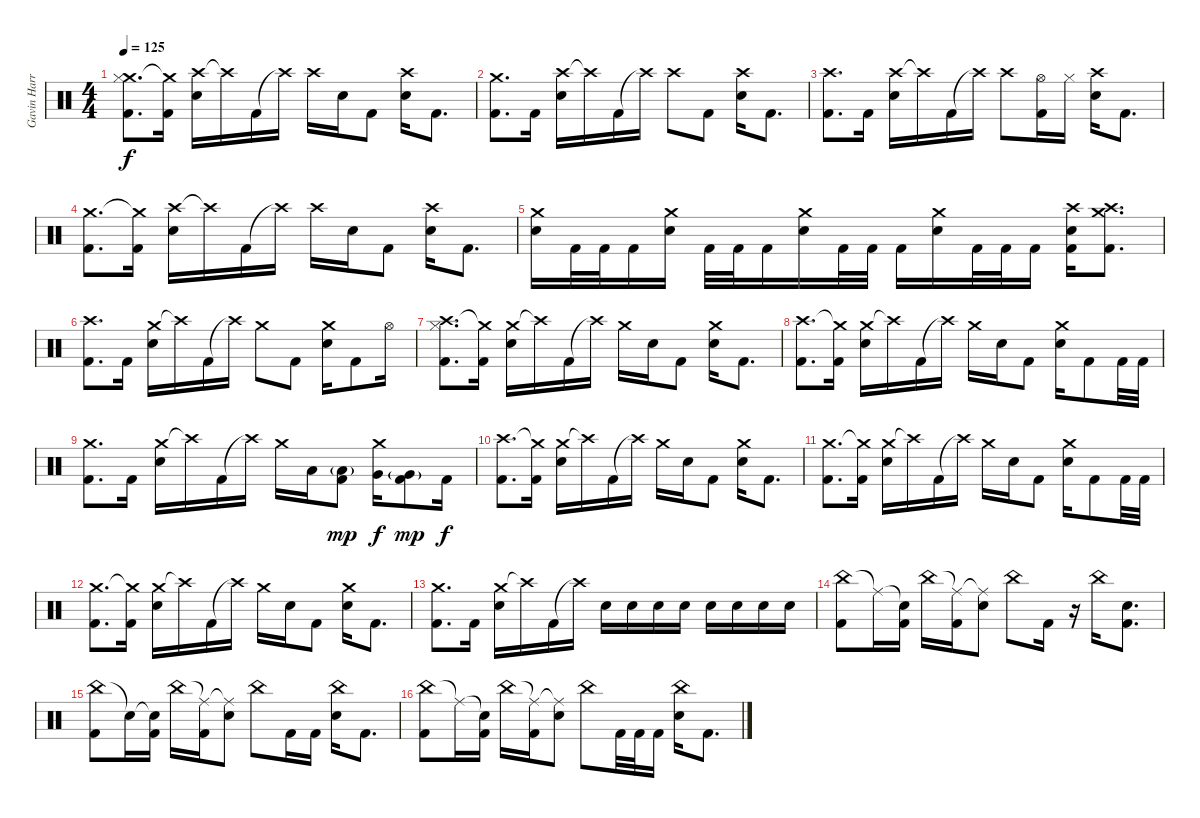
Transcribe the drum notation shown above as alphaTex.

\track ("Gavin Harrison" "Gavin Harr") {instrument percussion}
\staff {score}
\articulation defaults
\ts (4 4)
\tempo 125
\clef neutral
\ks c
("Crash medium (hit)" "Hi-Hat (closed)" "Kick (hit) 2").8{d dy f} ("Crash medium (hit)"{t} "Kick (hit) 2").16 ("Crash high (hit)" "Electric Snare (hit)").16 "Crash high (hit)"{t}.16 "Kick (hit) 2".16 "Crash high (hit)"{t}.16 "Crash high (hit)".16 "Electric Snare (hit)".16 "Kick (hit) 2".8 ("Crash high (hit)" "Electric Snare (hit)").16 "Kick (hit) 2".8{d} |
("Crash medium (hit)" "Kick (hit) 2").8{d} "Kick (hit) 2".16 ("Crash high (hit)" "Electric Snare (hit)").16 "Crash high (hit)"{t}.16 "Kick (hit) 2".16 "Crash high (hit)"{t}.16 "Crash high (hit)".8 "Kick (hit) 2".8 ("Crash high (hit)" "Electric Snare (hit)").16 "Kick (hit) 2".8{d} |
("Crash high (hit)" "Kick (hit) 2").8{d} "Kick (hit) 2".16 ("Crash high (hit)" "Electric Snare (hit)").16 "Crash high (hit)"{t}.16 "Kick (hit) 2".16 "Crash high (hit)"{t}.16 "Crash high (hit)".8 ("Hi-Hat (open)" "Kick (hit) 2").16 "Hi-Hat (closed)".16 ("Crash high (hit)" "Electric Snare (hit)").16 "Kick (hit) 2".8{d} |
("Crash medium (hit)" "Kick (hit) 2").8{d} ("Crash medium (hit)"{t} "Kick (hit) 2").16 ("Crash high (hit)" "Electric Snare (hit)").16 "Crash high (hit)"{t}.16 "Kick (hit) 2".16 "Crash high (hit)"{t}.16 "Crash high (hit)".16 "Electric Snare (hit)".16 "Kick (hit) 2".8 ("Crash high (hit)" "Electric Snare (hit)").16 "Kick (hit) 2".8{d} |
("Crash medium (hit)" "Electric Snare (hit)").16 "Kick (hit) 2".32 "Kick (hit) 2".32 "Kick (hit) 2".16 ("Crash medium (hit)" "Electric Snare (hit)").16 "Kick (hit) 2".32 "Kick (hit) 2".32 "Kick (hit) 2".16 ("Crash medium (hit)" "Electric Snare (hit)").16 "Kick (hit) 2".32 "Kick (hit) 2".32 "Kick (hit) 2".16 ("Crash medium (hit)" "Electric Snare (hit)").16 "Kick (hit) 2".32 "Kick (hit) 2".32 "Kick (hit) 2".16 ("Crash high (hit)" "Electric Snare (hit)" "Kick (hit) 2").16 ("Crash medium (hit)" "Crash high (hit)" "Kick (hit) 2").8{d} |
("Crash high (hit)" "Kick (hit) 2").8{d} "Kick (hit) 2".16 ("Crash medium (hit)" "Electric Snare (hit)").16 "Crash high (hit)"{t}.16 "Kick (hit) 2".16 "Crash high (hit)"{t}.16 "Crash medium (hit)".8 "Kick (hit) 2".8 ("Crash medium (hit)" "Electric Snare (hit)").16 "Kick (hit) 2".8 "Hi-Hat (open)".16 |
("Crash high (hit)" "Hi-Hat (closed)" "Kick (hit) 2").8{d} ("Crash medium (hit)"{t} "Kick (hit) 2").16 ("Crash medium (hit)" "Electric Snare (hit)").16 "Crash high (hit)"{t}.16 "Kick (hit) 2".16 "Crash high (hit)"{t}.16 "Crash medium (hit)".16 "Electric Snare (hit)".16 "Kick (hit) 2".8 ("Crash medium (hit)" "Electric Snare (hit)").16 "Kick (hit) 2".8{d} |
("Crash high (hit)" "Kick (hit) 2").8{d} ("Crash medium (hit)"{t} "Kick (hit) 2").16 ("Crash medium (hit)" "Electric Snare (hit)").16 "Crash high (hit)"{t}.16 "Kick (hit) 2".16 "Crash high (hit)"{t}.16 "Crash medium (hit)".16 "Electric Snare (hit)".16 "Kick (hit) 2".8 ("Crash medium (hit)" "Electric Snare (hit)").16 "Kick (hit) 2".8 "Kick (hit) 2".32 "Kick (hit) 2".32 |
("Crash medium (hit)" "Kick (hit) 2").8{d} "Kick (hit) 2".16 ("Crash medium (hit)" "Electric Snare (hit)").16 "Crash high (hit)"{t}.16 "Kick (hit) 2".16 "Crash high (hit)"{t}.16 "Crash medium (hit)".16 "Low Tom (hit)".16 ("Low Tom (hit)"{g} "Kick (hit) 2").8{dy mp} ("Crash medium (hit)" "Very Low Tom (hit)").16{dy f} ("Very Low Tom (hit)"{g} "Kick (hit) 2").8{dy mp} "Kick (hit) 2".16{dy f} |
("Crash high (hit)" "Kick (hit) 2").8{d} ("Crash medium (hit)"{t} "Kick (hit) 2").16 ("Crash medium (hit)" "Electric Snare (hit)").16 "Crash high (hit)"{t}.16 "Kick (hit) 2".16 "Crash high (hit)"{t}.16 "Crash medium (hit)".16 "Electric Snare (hit)".16 "Kick (hit) 2".8 ("Crash medium (hit)" "Electric Snare (hit)").16 "Kick (hit) 2".8{d} |
("Crash medium (hit)" "Kick (hit) 2").8{d} ("Crash medium (hit)"{t} "Kick (hit) 2").16 ("Crash medium (hit)" "Electric Snare (hit)").16 "Crash high (hit)"{t}.16 "Kick (hit) 2".16 "Crash high (hit)"{t}.16 "Crash medium (hit)".16 "Electric Snare (hit)".16 "Kick (hit) 2".8 ("Crash medium (hit)" "Electric Snare (hit)").16 "Kick (hit) 2".8 "Kick (hit) 2".32 "Kick (hit) 2".32 |
("Crash medium (hit)" "Kick (hit) 2").8{d} ("Crash medium (hit)"{t} "Kick (hit) 2").16 ("Crash medium (hit)" "Electric Snare (hit)").16 "Crash high (hit)"{t}.16 "Kick (hit) 2".16 "Crash high (hit)"{t}.16 "Crash medium (hit)".16 "Electric Snare (hit)".16 "Kick (hit) 2".8 ("Crash medium (hit)" "Electric Snare (hit)").16 "Kick (hit) 2".8{d} |
("Crash medium (hit)" "Kick (hit) 2").8{d} "Kick (hit) 2".16 ("Crash medium (hit)" "Electric Snare (hit)").16 "Crash high (hit)"{t}.16 "Kick (hit) 2".16 "Crash high (hit)"{t}.16 "Electric Snare (hit)".16 "Electric Snare (hit)".16 "Electric Snare (hit)".16 "Electric Snare (hit)".16 "Electric Snare (hit)".16 "Electric Snare (hit)".16 "Electric Snare (hit)".16 "Electric Snare (hit)".16 |
("China (hit)" "Kick (hit) 2").8 "Ride (middle)"{t}.16 ("Snare (hit)"{t} "Kick (hit) 2").16 "China (hit)".16 ("Ride (middle)"{t} "Kick (hit) 2").16 ("Ride (middle)"{t} "Electric Snare (hit)").8 "China (hit)".8 "Kick (hit) 2".16 r.16 "China (hit)".16 ("Electric Snare (hit)" "Kick (hit) 2").8{d} |
("China (hit)" "Kick (hit) 2").8 "Snare (hit)"{t}.16 ("Snare (hit)"{t} "Kick (hit) 2").16 "China (hit)".16 ("Ride (middle)"{t} "Kick (hit) 2").16 ("Ride (middle)"{t} "Electric Snare (hit)").8 "China (hit)".8 "Kick (hit) 2".16 "Kick (hit) 2".16 ("China (hit)" "Electric Snare (hit)").16 "Kick (hit) 2".8{d} |
("China (hit)" "Kick (hit) 2").8 "Ride (middle)"{t}.16 ("Snare (hit)"{t} "Kick (hit) 2").16 "China (hit)".16 ("Ride (middle)"{t} "Kick (hit) 2").16 ("Ride (middle)"{t} "Electric Snare (hit)").8 "China (hit)".8 "Kick (hit) 2".32 "Kick (hit) 2".32 "Kick (hit) 2".16 ("China (hit)" "Electric Snare (hit)").16 "Kick (hit) 2".8{d}
